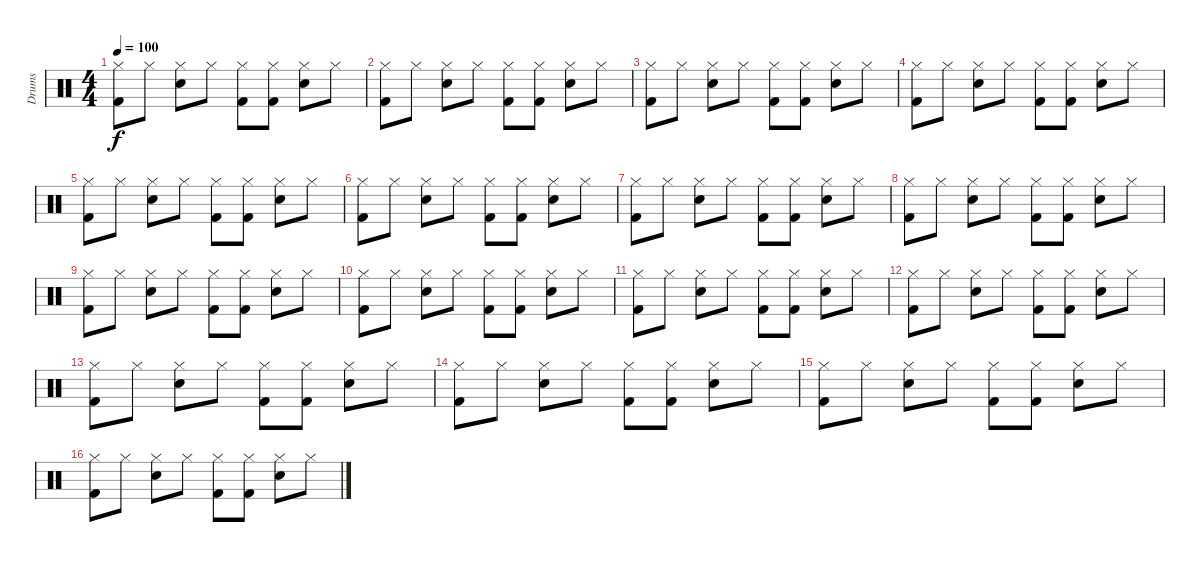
\track ("Drums" "Drums") {instrument percussion}
\staff {score}
\articulation defaults
\ts (4 4)
\tempo 100
\clef neutral
\ks c
("Hi-Hat (closed)" "Kick (hit) 2").8{dy f} "Hi-Hat (closed)".8 ("Hi-Hat (closed)" "Electric Snare (hit)").8 "Hi-Hat (closed)".8 ("Hi-Hat (closed)" "Kick (hit) 2").8 ("Hi-Hat (closed)" "Kick (hit) 2").8 ("Hi-Hat (closed)" "Electric Snare (hit)").8 "Hi-Hat (closed)".8 |
("Hi-Hat (closed)" "Kick (hit) 2").8 "Hi-Hat (closed)".8 ("Hi-Hat (closed)" "Electric Snare (hit)").8 "Hi-Hat (closed)".8 ("Hi-Hat (closed)" "Kick (hit) 2").8 ("Hi-Hat (closed)" "Kick (hit) 2").8 ("Hi-Hat (closed)" "Electric Snare (hit)").8 "Hi-Hat (closed)".8 |
("Hi-Hat (closed)" "Kick (hit) 2").8 "Hi-Hat (closed)".8 ("Hi-Hat (closed)" "Electric Snare (hit)").8 "Hi-Hat (closed)".8 ("Hi-Hat (closed)" "Kick (hit) 2").8 ("Hi-Hat (closed)" "Kick (hit) 2").8 ("Hi-Hat (closed)" "Electric Snare (hit)").8 "Hi-Hat (closed)".8 |
("Hi-Hat (closed)" "Kick (hit) 2").8 "Hi-Hat (closed)".8 ("Hi-Hat (closed)" "Electric Snare (hit)").8 "Hi-Hat (closed)".8 ("Hi-Hat (closed)" "Kick (hit) 2").8 ("Hi-Hat (closed)" "Kick (hit) 2").8 ("Hi-Hat (closed)" "Electric Snare (hit)").8 "Hi-Hat (closed)".8 |
("Hi-Hat (closed)" "Kick (hit) 2").8 "Hi-Hat (closed)".8 ("Hi-Hat (closed)" "Electric Snare (hit)").8 "Hi-Hat (closed)".8 ("Hi-Hat (closed)" "Kick (hit) 2").8 ("Hi-Hat (closed)" "Kick (hit) 2").8 ("Hi-Hat (closed)" "Electric Snare (hit)").8 "Hi-Hat (closed)".8 |
("Hi-Hat (closed)" "Kick (hit) 2").8 "Hi-Hat (closed)".8 ("Hi-Hat (closed)" "Electric Snare (hit)").8 "Hi-Hat (closed)".8 ("Hi-Hat (closed)" "Kick (hit) 2").8 ("Hi-Hat (closed)" "Kick (hit) 2").8 ("Hi-Hat (closed)" "Electric Snare (hit)").8 "Hi-Hat (closed)".8 |
("Hi-Hat (closed)" "Kick (hit) 2").8 "Hi-Hat (closed)".8 ("Hi-Hat (closed)" "Electric Snare (hit)").8 "Hi-Hat (closed)".8 ("Hi-Hat (closed)" "Kick (hit) 2").8 ("Hi-Hat (closed)" "Kick (hit) 2").8 ("Hi-Hat (closed)" "Electric Snare (hit)").8 "Hi-Hat (closed)".8 |
("Hi-Hat (closed)" "Kick (hit) 2").8 "Hi-Hat (closed)".8 ("Hi-Hat (closed)" "Electric Snare (hit)").8 "Hi-Hat (closed)".8 ("Hi-Hat (closed)" "Kick (hit) 2").8 ("Hi-Hat (closed)" "Kick (hit) 2").8 ("Hi-Hat (closed)" "Electric Snare (hit)").8 "Hi-Hat (closed)".8 |
("Hi-Hat (closed)" "Kick (hit) 2").8 "Hi-Hat (closed)".8 ("Hi-Hat (closed)" "Electric Snare (hit)").8 "Hi-Hat (closed)".8 ("Hi-Hat (closed)" "Kick (hit) 2").8 ("Hi-Hat (closed)" "Kick (hit) 2").8 ("Hi-Hat (closed)" "Electric Snare (hit)").8 "Hi-Hat (closed)".8 |
("Hi-Hat (closed)" "Kick (hit) 2").8 "Hi-Hat (closed)".8 ("Hi-Hat (closed)" "Electric Snare (hit)").8 "Hi-Hat (closed)".8 ("Hi-Hat (closed)" "Kick (hit) 2").8 ("Hi-Hat (closed)" "Kick (hit) 2").8 ("Hi-Hat (closed)" "Electric Snare (hit)").8 "Hi-Hat (closed)".8 |
("Hi-Hat (closed)" "Kick (hit) 2").8 "Hi-Hat (closed)".8 ("Hi-Hat (closed)" "Electric Snare (hit)").8 "Hi-Hat (closed)".8 ("Hi-Hat (closed)" "Kick (hit) 2").8 ("Hi-Hat (closed)" "Kick (hit) 2").8 ("Hi-Hat (closed)" "Electric Snare (hit)").8 "Hi-Hat (closed)".8 |
("Hi-Hat (closed)" "Kick (hit) 2").8 "Hi-Hat (closed)".8 ("Hi-Hat (closed)" "Electric Snare (hit)").8 "Hi-Hat (closed)".8 ("Hi-Hat (closed)" "Kick (hit) 2").8 ("Hi-Hat (closed)" "Kick (hit) 2").8 ("Hi-Hat (closed)" "Electric Snare (hit)").8 "Hi-Hat (closed)".8 |
("Hi-Hat (closed)" "Kick (hit) 2").8 "Hi-Hat (closed)".8 ("Hi-Hat (closed)" "Electric Snare (hit)").8 "Hi-Hat (closed)".8 ("Hi-Hat (closed)" "Kick (hit) 2").8 ("Hi-Hat (closed)" "Kick (hit) 2").8 ("Hi-Hat (closed)" "Electric Snare (hit)").8 "Hi-Hat (closed)".8 |
("Hi-Hat (closed)" "Kick (hit) 2").8 "Hi-Hat (closed)".8 ("Hi-Hat (closed)" "Electric Snare (hit)").8 "Hi-Hat (closed)".8 ("Hi-Hat (closed)" "Kick (hit) 2").8 ("Hi-Hat (closed)" "Kick (hit) 2").8 ("Hi-Hat (closed)" "Electric Snare (hit)").8 "Hi-Hat (closed)".8 |
("Hi-Hat (closed)" "Kick (hit) 2").8 "Hi-Hat (closed)".8 ("Hi-Hat (closed)" "Electric Snare (hit)").8 "Hi-Hat (closed)".8 ("Hi-Hat (closed)" "Kick (hit) 2").8 ("Hi-Hat (closed)" "Kick (hit) 2").8 ("Hi-Hat (closed)" "Electric Snare (hit)").8 "Hi-Hat (closed)".8 |
("Hi-Hat (closed)" "Kick (hit) 2").8 "Hi-Hat (closed)".8 ("Hi-Hat (closed)" "Electric Snare (hit)").8 "Hi-Hat (closed)".8 ("Hi-Hat (closed)" "Kick (hit) 2").8 ("Hi-Hat (closed)" "Kick (hit) 2").8 ("Hi-Hat (closed)" "Electric Snare (hit)").8 "Hi-Hat (closed)".8
